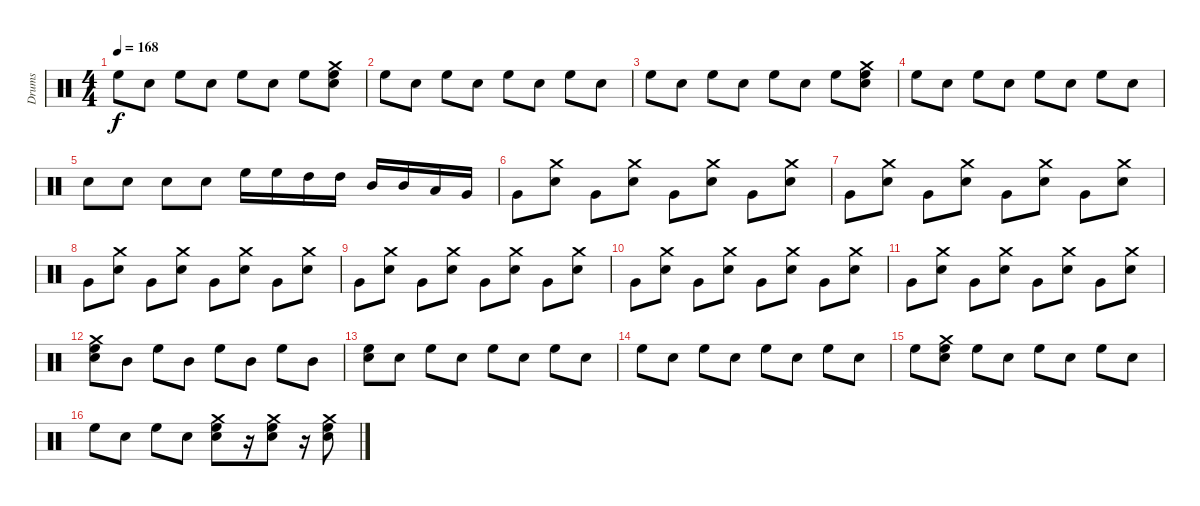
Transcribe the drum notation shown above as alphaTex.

\track ("Drums" "Drums") {instrument percussion}
\staff {score}
\articulation defaults
\ts (4 4)
\tempo 168
\clef neutral
\ks c "High Floor Tom (hit)".8{dy f} "Electric Snare (hit)".8 "High Floor Tom (hit)".8 "Electric Snare (hit)".8 "High Floor Tom (hit)".8 "Electric Snare (hit)".8 "High Floor Tom (hit)".8
("Electric Snare (hit)" "Crash medium (hit)" "High Floor Tom (hit)").8 |
"High Floor Tom (hit)".8 "Electric Snare (hit)".8 "High Floor Tom (hit)".8 "Electric Snare (hit)".8 "High Floor Tom (hit)".8 "Electric Snare (hit)".8 "High Floor Tom (hit)".8 "Electric Snare (hit)".8 |
"High Floor Tom (hit)".8 "Electric Snare (hit)".8 "High Floor Tom (hit)".8 "Electric Snare (hit)".8 "High Floor Tom (hit)".8 "Electric Snare (hit)".8 "High Floor Tom (hit)".8 ("Electric Snare (hit)" "Crash medium (hit)" "High Floor Tom (hit)").8 |
"High Floor Tom (hit)".8 "Electric Snare (hit)".8 "High Floor Tom (hit)".8 "Electric Snare (hit)".8 "High Floor Tom (hit)".8 "Electric Snare (hit)".8 "High Floor Tom (hit)".8 "Electric Snare (hit)".8 |
"Electric Snare (hit)".8 "Electric Snare (hit)".8 "Electric Snare (hit)".8 "Electric Snare (hit)".8 "High Floor Tom (hit)".16 "High Floor Tom (hit)".16 "High Tom (hit)".16 "High Tom (hit)".16 "Mid Tom (hit)".16 "Mid Tom (hit)".16 "Low Tom (hit)".16 "Very Low Tom (hit)".16 |
"Very Low Tom (hit)".8 ("Crash medium (hit)" "Electric Snare (hit)").8 "Very Low Tom (hit)".8 ("Crash medium (hit)" "Electric Snare (hit)").8 "Very Low Tom (hit)".8 ("Crash medium (hit)" "Electric Snare (hit)").8 "Very Low Tom (hit)".8 ("Crash medium (hit)" "Electric Snare (hit)").8 |
"Very Low Tom (hit)".8 ("Electric Snare (hit)" "Crash medium (hit)").8 "Very Low Tom (hit)".8 ("Electric Snare (hit)" "Crash medium (hit)").8 "Very Low Tom (hit)".8 ("Electric Snare (hit)" "Crash medium (hit)").8 "Very Low Tom (hit)".8 ("Electric Snare (hit)" "Crash medium (hit)").8 |
"Very Low Tom (hit)".8 ("Crash medium (hit)" "Electric Snare (hit)").8 "Very Low Tom (hit)".8 ("Crash medium (hit)" "Electric Snare (hit)").8 "Very Low Tom (hit)".8 ("Crash medium (hit)" "Electric Snare (hit)").8 "Very Low Tom (hit)".8 ("Crash medium (hit)" "Electric Snare (hit)").8 |
"Very Low Tom (hit)".8 ("Electric Snare (hit)" "Crash medium (hit)").8 "Very Low Tom (hit)".8 ("Electric Snare (hit)" "Crash medium (hit)").8 "Very Low Tom (hit)".8 ("Electric Snare (hit)" "Crash medium (hit)").8 "Very Low Tom (hit)".8 ("Electric Snare (hit)" "Crash medium (hit)").8 |
"Very Low Tom (hit)".8 ("Crash medium (hit)" "Electric Snare (hit)").8 "Very Low Tom (hit)".8 ("Crash medium (hit)" "Electric Snare (hit)").8 "Very Low Tom (hit)".8 ("Crash medium (hit)" "Electric Snare (hit)").8 "Very Low Tom (hit)".8 ("Crash medium (hit)" "Electric Snare (hit)").8 |
"Very Low Tom (hit)".8 ("Electric Snare (hit)" "Crash medium (hit)").8 "Very Low Tom (hit)".8 ("Electric Snare (hit)" "Crash medium (hit)").8 "Very Low Tom (hit)".8 ("Electric Snare (hit)" "Crash medium (hit)").8 "Very Low Tom (hit)".8 ("Electric Snare (hit)" "Crash medium (hit)").8 |
("Electric Snare (hit)" "Crash medium (hit)" "High Floor Tom (hit)").8 "Mid Tom (hit)".8 "High Floor Tom (hit)".8 "Mid Tom (hit)".8 "High Floor Tom (hit)".8 "Mid Tom (hit)".8 "High Floor Tom (hit)".8 "Mid Tom (hit)".8 |
("Electric Snare (hit)" "High Floor Tom (hit)").8 "Electric Snare (hit)".8 "High Floor Tom (hit)".8 "Electric Snare (hit)".8 "High Floor Tom (hit)".8 "Electric Snare (hit)".8 "High Floor Tom (hit)".8 "Electric Snare (hit)".8 |
"High Floor Tom (hit)".8 "Electric Snare (hit)".8 "High Floor Tom (hit)".8 "Electric Snare (hit)".8 "High Floor Tom (hit)".8 "Electric Snare (hit)".8 "High Floor Tom (hit)".8 "Electric Snare (hit)".8 |
"High Floor Tom (hit)".8 ("High Floor Tom (hit)" "Crash medium (hit)" "Electric Snare (hit)").8 "High Floor Tom (hit)".8 "Electric Snare (hit)".8 "High Floor Tom (hit)".8 "Electric Snare (hit)".8 "High Floor Tom (hit)".8 "Electric Snare (hit)".8 |
"High Floor Tom (hit)".8 "Electric Snare (hit)".8 "High Floor Tom (hit)".8 "Electric Snare (hit)".8 ("Electric Snare (hit)" "High Floor Tom (hit)" "Crash medium (hit)").8 r.16 ("Electric Snare (hit)" "High Floor Tom (hit)" "Crash medium (hit)").8 r.16 ("Electric Snare (hit)" "High Floor Tom (hit)" "Crash medium (hit)").8
